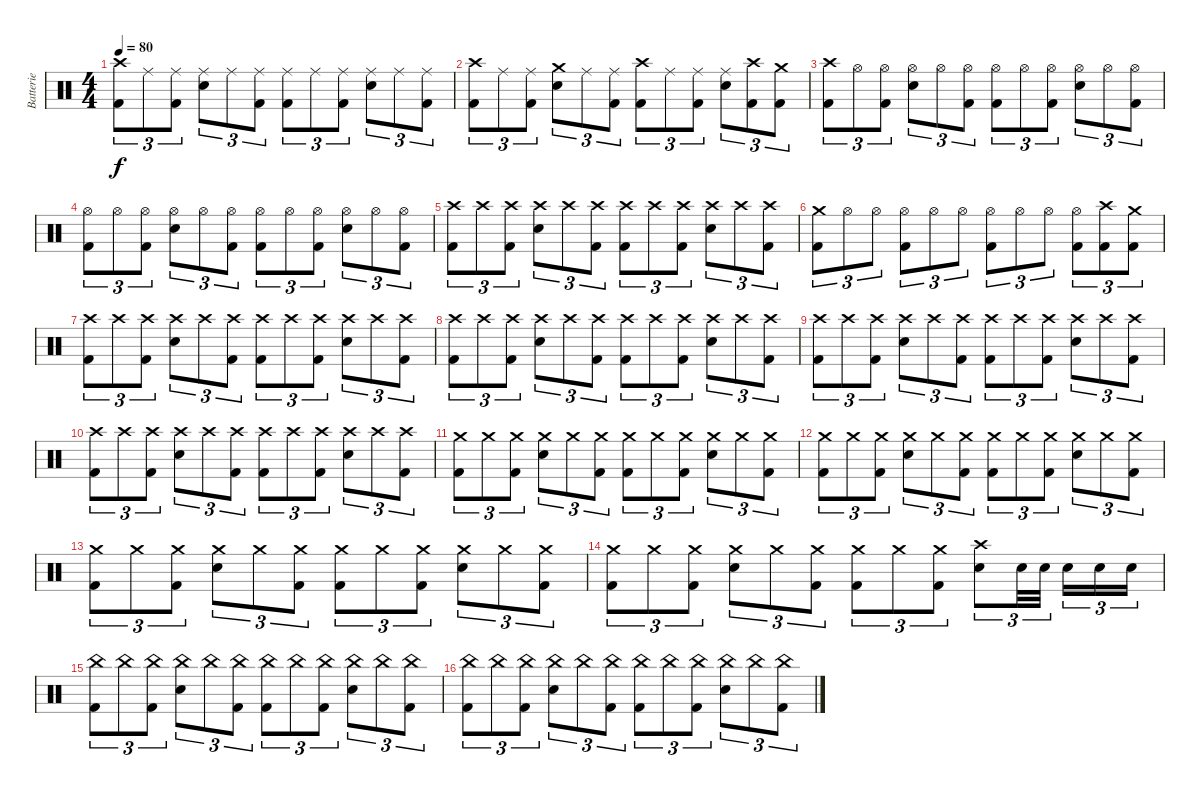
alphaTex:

\track ("Batterie" "Batterie") {instrument percussion}
\staff {score}
\articulation defaults
\ts (4 4)
\tempo 80
\clef neutral
\ks c
("Crash high (hit)" "Kick (hit) 2").8{tu (3 2) dy f} "Ride (middle)".8{tu (3 2)} ("Ride (middle)" "Kick (hit) 2").8{tu (3 2)} ("Ride (middle)" "Electric Snare (hit)").8{tu (3 2)} "Ride (middle)".8{tu (3 2)} ("Ride (middle)" "Kick (hit) 2").8{tu (3 2)} ("Ride (middle)" "Kick (hit) 2").8{tu (3 2)} "Ride (middle)".8{tu (3 2)} ("Ride (middle)" "Kick (hit) 2").8{tu (3 2)} ("Ride (middle)" "Electric Snare (hit)").8{tu (3 2)} "Ride (middle)".8{tu (3 2)} ("Ride (middle)" "Kick (hit) 2").8{tu (3 2)} |
("Crash high (hit)" "Kick (hit) 2").8{tu (3 2)} "Ride (middle)".8{tu (3 2)} ("Ride (middle)" "Kick (hit) 2").8{tu (3 2)} ("Crash medium (hit)" "Electric Snare (hit)").8{tu (3 2)} "Ride (middle)".8{tu (3 2)} ("Ride (middle)" "Kick (hit) 2").8{tu (3 2)} ("Crash high (hit)" "Kick (hit) 2").8{tu (3 2)} "Ride (middle)".8{tu (3 2)} ("Ride (middle)" "Kick (hit) 2").8{tu (3 2)} ("Ride (middle)" "Electric Snare (hit)").8{tu (3 2)} ("Crash high (hit)" "Kick (hit) 2").8{tu (3 2)} ("Crash medium (hit)" "Kick (hit) 2").8{tu (3 2)} |
("Crash high (hit)" "Kick (hit) 2").8{tu (3 2)} "Hi-Hat (open)".8{tu (3 2)} ("Hi-Hat (open)" "Kick (hit) 2").8{tu (3 2)} ("Hi-Hat (open)" "Electric Snare (hit)").8{tu (3 2)} "Hi-Hat (open)".8{tu (3 2)} ("Hi-Hat (open)" "Kick (hit) 2").8{tu (3 2)} ("Hi-Hat (open)" "Kick (hit) 2").8{tu (3 2)} "Hi-Hat (open)".8{tu (3 2)} ("Hi-Hat (open)" "Kick (hit) 2").8{tu (3 2)} ("Hi-Hat (open)" "Electric Snare (hit)").8{tu (3 2)} "Hi-Hat (open)".8{tu (3 2)} ("Hi-Hat (open)" "Kick (hit) 2").8{tu (3 2)} |
("Hi-Hat (open)" "Kick (hit) 2").8{tu (3 2)} "Hi-Hat (open)".8{tu (3 2)} ("Hi-Hat (open)" "Kick (hit) 2").8{tu (3 2)} ("Hi-Hat (open)" "Electric Snare (hit)").8{tu (3 2)} "Hi-Hat (open)".8{tu (3 2)} ("Hi-Hat (open)" "Kick (hit) 2").8{tu (3 2)} ("Hi-Hat (open)" "Kick (hit) 2").8{tu (3 2)} "Hi-Hat (open)".8{tu (3 2)} ("Hi-Hat (open)" "Kick (hit) 2").8{tu (3 2)} ("Hi-Hat (open)" "Electric Snare (hit)").8{tu (3 2)} "Hi-Hat (open)".8{tu (3 2)} ("Hi-Hat (open)" "Kick (hit) 2").8{tu (3 2)} |
("Crash high (hit)" "Kick (hit) 2").8{tu (3 2)} "Crash high (hit)".8{tu (3 2)} ("Crash high (hit)" "Kick (hit) 2").8{tu (3 2)} ("Crash high (hit)" "Electric Snare (hit)").8{tu (3 2)} "Crash high (hit)".8{tu (3 2)} ("Crash high (hit)" "Kick (hit) 2").8{tu (3 2)} ("Crash high (hit)" "Kick (hit) 2").8{tu (3 2)} "Crash high (hit)".8{tu (3 2)} ("Crash high (hit)" "Kick (hit) 2").8{tu (3 2)} ("Crash high (hit)" "Electric Snare (hit)").8{tu (3 2)} "Crash high (hit)".8{tu (3 2)} ("Crash high (hit)" "Kick (hit) 2").8{tu (3 2)} |
("Crash medium (hit)" "Kick (hit) 2").8{tu (3 2)} "Hi-Hat (open)".8{tu (3 2)} "Hi-Hat (open)".8{tu (3 2)} ("Hi-Hat (open)" "Kick (hit) 2").8{tu (3 2)} "Hi-Hat (open)".8{tu (3 2)} "Hi-Hat (open)".8{tu (3 2)} ("Hi-Hat (open)" "Kick (hit) 2").8{tu (3 2)} "Hi-Hat (open)".8{tu (3 2)} "Hi-Hat (open)".8{tu (3 2)} ("Hi-Hat (open)" "Kick (hit) 2").8{tu (3 2)} ("Crash high (hit)" "Kick (hit) 2").8{tu (3 2)} ("Crash medium (hit)" "Kick (hit) 2").8{tu (3 2)} |
("Crash high (hit)" "Kick (hit) 2").8{tu (3 2)} "Crash high (hit)".8{tu (3 2)} ("Crash high (hit)" "Kick (hit) 2").8{tu (3 2)} ("Crash high (hit)" "Electric Snare (hit)").8{tu (3 2)} "Crash high (hit)".8{tu (3 2)} ("Crash high (hit)" "Kick (hit) 2").8{tu (3 2)} ("Crash high (hit)" "Kick (hit) 2").8{tu (3 2)} "Crash high (hit)".8{tu (3 2)} ("Crash high (hit)" "Kick (hit) 2").8{tu (3 2)} ("Crash high (hit)" "Electric Snare (hit)").8{tu (3 2)} "Crash high (hit)".8{tu (3 2)} ("Crash high (hit)" "Kick (hit) 2").8{tu (3 2)} |
("Crash high (hit)" "Kick (hit) 2").8{tu (3 2)} "Crash high (hit)".8{tu (3 2)} ("Crash high (hit)" "Kick (hit) 2").8{tu (3 2)} ("Crash high (hit)" "Electric Snare (hit)").8{tu (3 2)} "Crash high (hit)".8{tu (3 2)} ("Crash high (hit)" "Kick (hit) 2").8{tu (3 2)} ("Crash high (hit)" "Kick (hit) 2").8{tu (3 2)} "Crash high (hit)".8{tu (3 2)} ("Crash high (hit)" "Kick (hit) 2").8{tu (3 2)} ("Crash high (hit)" "Electric Snare (hit)").8{tu (3 2)} "Crash high (hit)".8{tu (3 2)} ("Crash high (hit)" "Kick (hit) 2").8{tu (3 2)} |
("Crash high (hit)" "Kick (hit) 2").8{tu (3 2)} "Crash high (hit)".8{tu (3 2)} ("Crash high (hit)" "Kick (hit) 2").8{tu (3 2)} ("Crash high (hit)" "Electric Snare (hit)").8{tu (3 2)} "Crash high (hit)".8{tu (3 2)} ("Crash high (hit)" "Kick (hit) 2").8{tu (3 2)} ("Crash high (hit)" "Kick (hit) 2").8{tu (3 2)} "Crash high (hit)".8{tu (3 2)} ("Crash high (hit)" "Kick (hit) 2").8{tu (3 2)} ("Crash high (hit)" "Electric Snare (hit)").8{tu (3 2)} "Crash high (hit)".8{tu (3 2)} ("Crash high (hit)" "Kick (hit) 2").8{tu (3 2)} |
("Crash high (hit)" "Kick (hit) 2").8{tu (3 2)} "Crash high (hit)".8{tu (3 2)} ("Crash high (hit)" "Kick (hit) 2").8{tu (3 2)} ("Crash high (hit)" "Electric Snare (hit)").8{tu (3 2)} "Crash high (hit)".8{tu (3 2)} ("Crash high (hit)" "Kick (hit) 2").8{tu (3 2)} ("Crash high (hit)" "Kick (hit) 2").8{tu (3 2)} "Crash high (hit)".8{tu (3 2)} ("Crash high (hit)" "Kick (hit) 2").8{tu (3 2)} ("Crash high (hit)" "Electric Snare (hit)").8{tu (3 2)} "Crash high (hit)".8{tu (3 2)} ("Crash high (hit)" "Kick (hit) 2").8{tu (3 2)} |
("Crash medium (hit)" "Kick (hit) 2").8{tu (3 2)} "Crash medium (hit)".8{tu (3 2)} ("Crash medium (hit)" "Kick (hit) 2").8{tu (3 2)} ("Crash medium (hit)" "Electric Snare (hit)").8{tu (3 2)} "Crash medium (hit)".8{tu (3 2)} ("Crash medium (hit)" "Kick (hit) 2").8{tu (3 2)} ("Crash medium (hit)" "Kick (hit) 2").8{tu (3 2)} "Crash medium (hit)".8{tu (3 2)} ("Crash medium (hit)" "Kick (hit) 2").8{tu (3 2)} ("Crash medium (hit)" "Electric Snare (hit)").8{tu (3 2)} "Crash medium (hit)".8{tu (3 2)} ("Crash medium (hit)" "Kick (hit) 2").8{tu (3 2)} |
("Crash medium (hit)" "Kick (hit) 2").8{tu (3 2)} "Crash medium (hit)".8{tu (3 2)} ("Crash medium (hit)" "Kick (hit) 2").8{tu (3 2)} ("Crash medium (hit)" "Electric Snare (hit)").8{tu (3 2)} "Crash medium (hit)".8{tu (3 2)} ("Crash medium (hit)" "Kick (hit) 2").8{tu (3 2)} ("Crash medium (hit)" "Kick (hit) 2").8{tu (3 2)} "Crash medium (hit)".8{tu (3 2)} ("Crash medium (hit)" "Kick (hit) 2").8{tu (3 2)} ("Crash medium (hit)" "Electric Snare (hit)").8{tu (3 2)} "Crash medium (hit)".8{tu (3 2)} ("Crash medium (hit)" "Kick (hit) 2").8{tu (3 2)} |
("Crash medium (hit)" "Kick (hit) 2").8{tu (3 2)} "Crash medium (hit)".8{tu (3 2)} ("Crash medium (hit)" "Kick (hit) 2").8{tu (3 2)} ("Crash medium (hit)" "Electric Snare (hit)").8{tu (3 2)} "Crash medium (hit)".8{tu (3 2)} ("Crash medium (hit)" "Kick (hit) 2").8{tu (3 2)} ("Crash medium (hit)" "Kick (hit) 2").8{tu (3 2)} "Crash medium (hit)".8{tu (3 2)} ("Crash medium (hit)" "Kick (hit) 2").8{tu (3 2)} ("Crash medium (hit)" "Electric Snare (hit)").8{tu (3 2)} "Crash medium (hit)".8{tu (3 2)} ("Crash medium (hit)" "Kick (hit) 2").8{tu (3 2)} |
("Crash medium (hit)" "Kick (hit) 2").8{tu (3 2)} "Crash medium (hit)".8{tu (3 2)} ("Crash medium (hit)" "Kick (hit) 2").8{tu (3 2)} ("Crash medium (hit)" "Electric Snare (hit)").8{tu (3 2)} "Crash medium (hit)".8{tu (3 2)} ("Crash medium (hit)" "Kick (hit) 2").8{tu (3 2)} ("Crash medium (hit)" "Kick (hit) 2").8{tu (3 2)} "Crash medium (hit)".8{tu (3 2)} ("Crash medium (hit)" "Kick (hit) 2").8{tu (3 2)} ("Crash high (hit)" "Electric Snare (hit)").8{tu (3 2)} "Electric Snare (hit)".32{tu (3 2)} "Electric Snare (hit)".32{tu (3 2)} "Electric Snare (hit)".16{tu (3 2)} "Electric Snare (hit)".16{tu (3 2)} "Electric Snare (hit)".16{tu (3 2)} |
("China (hit)" "Kick (hit) 2").8{tu (3 2)} "China (hit)".8{tu (3 2)} ("China (hit)" "Kick (hit) 2").8{tu (3 2)} ("China (hit)" "Electric Snare (hit)").8{tu (3 2)} "China (hit)".8{tu (3 2)} ("China (hit)" "Kick (hit) 2").8{tu (3 2)} ("China (hit)" "Kick (hit) 2").8{tu (3 2)} "China (hit)".8{tu (3 2)} ("China (hit)" "Kick (hit) 2").8{tu (3 2)} ("China (hit)" "Electric Snare (hit)").8{tu (3 2)} "China (hit)".8{tu (3 2)} ("China (hit)" "Kick (hit) 2").8{tu (3 2)} |
("China (hit)" "Kick (hit) 2").8{tu (3 2)} "China (hit)".8{tu (3 2)} ("China (hit)" "Kick (hit) 2").8{tu (3 2)} ("China (hit)" "Electric Snare (hit)").8{tu (3 2)} "China (hit)".8{tu (3 2)} ("China (hit)" "Kick (hit) 2").8{tu (3 2)} ("China (hit)" "Kick (hit) 2").8{tu (3 2)} "China (hit)".8{tu (3 2)} ("China (hit)" "Kick (hit) 2").8{tu (3 2)} ("China (hit)" "Electric Snare (hit)").8{tu (3 2)} "China (hit)".8{tu (3 2)} ("China (hit)" "Kick (hit) 2").8{tu (3 2)}
